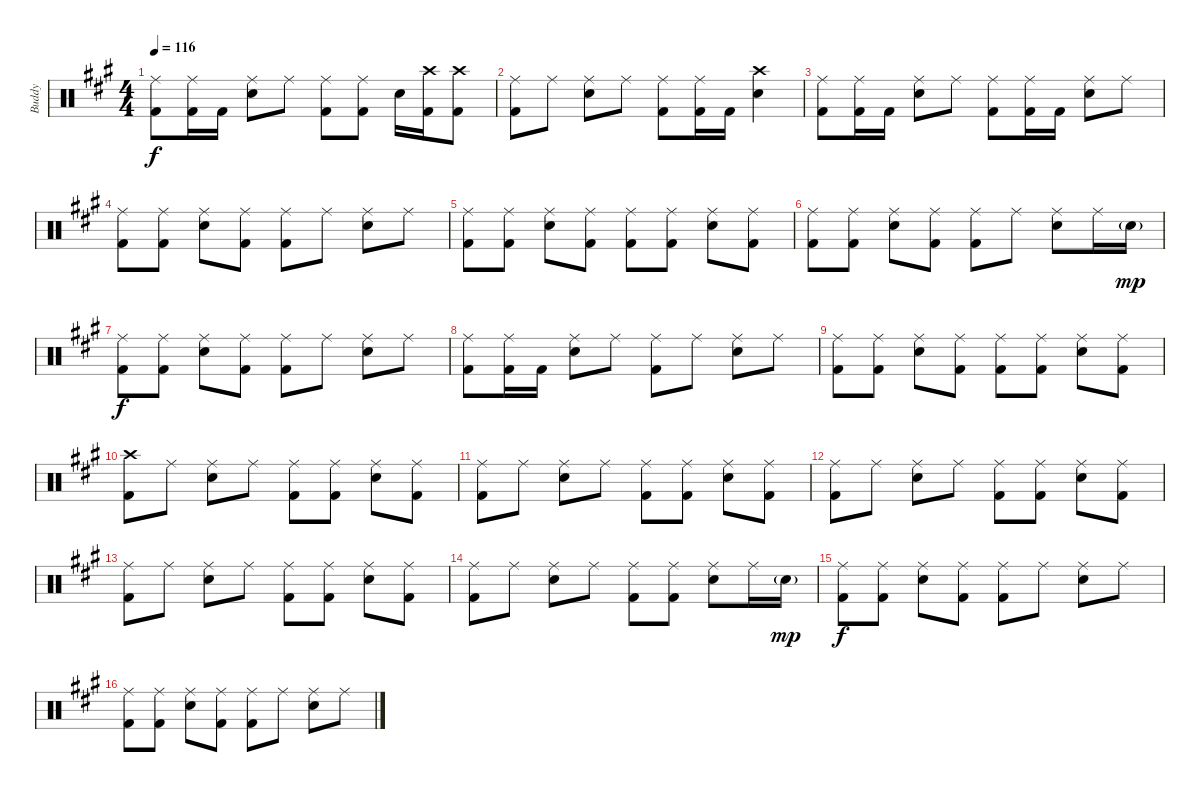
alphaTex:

\track ("Buddy" "Buddy") {instrument percussion}
\staff {score}
\articulation defaults
\ts (4 4)
\tempo 116
\clef neutral
\ks a
("Ride (middle)" "Kick (hit) 2").8{dy f} ("Ride (middle)" "Kick (hit) 2").16 "Kick (hit) 2".16 ("Ride (middle)" "Snare (hit) 2").8 "Ride (middle)".8 ("Ride (middle)" "Kick (hit) 2").8 ("Ride (middle)" "Kick (hit) 2").8 "Snare (hit) 2".16 ("Crash high (hit)" "Kick (hit) 2").16 ("Crash high (hit)" "Kick (hit) 2").8 |
("Ride (middle)" "Kick (hit) 2").8 "Ride (middle)".8 ("Ride (middle)" "Snare (hit) 2").8 "Ride (middle)".8 ("Ride (middle)" "Kick (hit) 2").8 ("Ride (middle)" "Kick (hit) 2").16 "Kick (hit) 2".16 ("Crash high (hit)" "Snare (hit) 2").4 |
("Ride (middle)" "Kick (hit) 2").8 ("Ride (middle)" "Kick (hit) 2").16 "Kick (hit) 2".16 ("Ride (middle)" "Snare (hit) 2").8 "Ride (middle)".8 ("Ride (middle)" "Kick (hit) 2").8 ("Ride (middle)" "Kick (hit) 2").16 "Kick (hit) 2".16 ("Ride (middle)" "Snare (hit) 2").8 "Ride (middle)".8 |
("Ride (middle)" "Kick (hit) 2").8 ("Ride (middle)" "Kick (hit) 2").8 ("Ride (middle)" "Snare (hit) 2").8 ("Ride (middle)" "Kick (hit) 2").8 ("Ride (middle)" "Kick (hit) 2").8 "Ride (middle)".8 ("Ride (middle)" "Snare (hit) 2").8 "Ride (middle)".8 |
("Ride (middle)" "Kick (hit) 2").8 ("Ride (middle)" "Kick (hit) 2").8 ("Ride (middle)" "Snare (hit) 2").8 ("Ride (middle)" "Kick (hit) 2").8 ("Ride (middle)" "Kick (hit) 2").8 ("Ride (middle)" "Kick (hit) 2").8 ("Ride (middle)" "Snare (hit) 2").8 ("Ride (middle)" "Kick (hit) 2").8 |
("Ride (middle)" "Kick (hit) 2").8 ("Ride (middle)" "Kick (hit) 2").8 ("Ride (middle)" "Snare (hit) 2").8 ("Ride (middle)" "Kick (hit) 2").8 ("Ride (middle)" "Kick (hit) 2").8 "Ride (middle)".8 ("Ride (middle)" "Snare (hit) 2").8 "Ride (middle)".16 "Snare (hit) 2"{g}.16{dy mp} |
("Ride (middle)" "Kick (hit) 2").8{dy f} ("Ride (middle)" "Kick (hit) 2").8 ("Ride (middle)" "Snare (hit) 2").8 ("Ride (middle)" "Kick (hit) 2").8 ("Ride (middle)" "Kick (hit) 2").8 "Ride (middle)".8 ("Ride (middle)" "Snare (hit) 2").8 "Ride (middle)".8 |
("Ride (middle)" "Kick (hit) 2").8 ("Ride (middle)" "Kick (hit) 2").16 "Kick (hit) 2".16 ("Ride (middle)" "Snare (hit) 2").8 "Ride (middle)".8 ("Ride (middle)" "Kick (hit) 2").8 "Ride (middle)".8 ("Ride (middle)" "Snare (hit) 2").8 "Ride (middle)".8 |
("Ride (middle)" "Kick (hit) 2").8 ("Ride (middle)" "Kick (hit) 2").8 ("Ride (middle)" "Snare (hit) 2").8 ("Ride (middle)" "Kick (hit) 2").8 ("Ride (middle)" "Kick (hit) 2").8 ("Ride (middle)" "Kick (hit) 2").8 ("Ride (middle)" "Snare (hit) 2").8 ("Ride (middle)" "Kick (hit) 2").8 |
("Crash high (hit)" "Kick (hit) 2").8 "Ride (middle)".8 ("Ride (middle)" "Snare (hit) 2").8 "Ride (middle)".8 ("Ride (middle)" "Kick (hit) 2").8 ("Ride (middle)" "Kick (hit) 2").8 ("Ride (middle)" "Snare (hit) 2").8 ("Ride (middle)" "Kick (hit) 2").8 |
("Ride (middle)" "Kick (hit) 2").8 "Ride (middle)".8 ("Ride (middle)" "Snare (hit) 2").8 "Ride (middle)".8 ("Ride (middle)" "Kick (hit) 2").8 ("Ride (middle)" "Kick (hit) 2").8 ("Ride (middle)" "Snare (hit) 2").8 ("Ride (middle)" "Kick (hit) 2").8 |
("Ride (middle)" "Kick (hit) 2").8 "Ride (middle)".8 ("Ride (middle)" "Snare (hit) 2").8 "Ride (middle)".8 ("Ride (middle)" "Kick (hit) 2").8 ("Ride (middle)" "Kick (hit) 2").8 ("Ride (middle)" "Snare (hit) 2").8 ("Ride (middle)" "Kick (hit) 2").8 |
("Ride (middle)" "Kick (hit) 2").8 "Ride (middle)".8 ("Ride (middle)" "Snare (hit) 2").8 "Ride (middle)".8 ("Ride (middle)" "Kick (hit) 2").8 ("Ride (middle)" "Kick (hit) 2").8 ("Ride (middle)" "Snare (hit) 2").8 ("Ride (middle)" "Kick (hit) 2").8 |
("Ride (middle)" "Kick (hit) 2").8 "Ride (middle)".8 ("Ride (middle)" "Snare (hit) 2").8 "Ride (middle)".8 ("Ride (middle)" "Kick (hit) 2").8 ("Ride (middle)" "Kick (hit) 2").8 ("Ride (middle)" "Snare (hit) 2").8 "Ride (middle)".16 "Snare (hit) 2"{g}.16{dy mp} |
("Ride (middle)" "Kick (hit) 2").8{dy f} ("Ride (middle)" "Kick (hit) 2").8 ("Ride (middle)" "Snare (hit) 2").8 ("Ride (middle)" "Kick (hit) 2").8 ("Ride (middle)" "Kick (hit) 2").8 "Ride (middle)".8 ("Ride (middle)" "Snare (hit) 2").8 "Ride (middle)".8 |
("Ride (middle)" "Kick (hit) 2").8 ("Ride (middle)" "Kick (hit) 2").8 ("Ride (middle)" "Snare (hit) 2").8 ("Ride (middle)" "Kick (hit) 2").8 ("Ride (middle)" "Kick (hit) 2").8 "Ride (middle)".8 ("Ride (middle)" "Snare (hit) 2").8 "Ride (middle)".8
